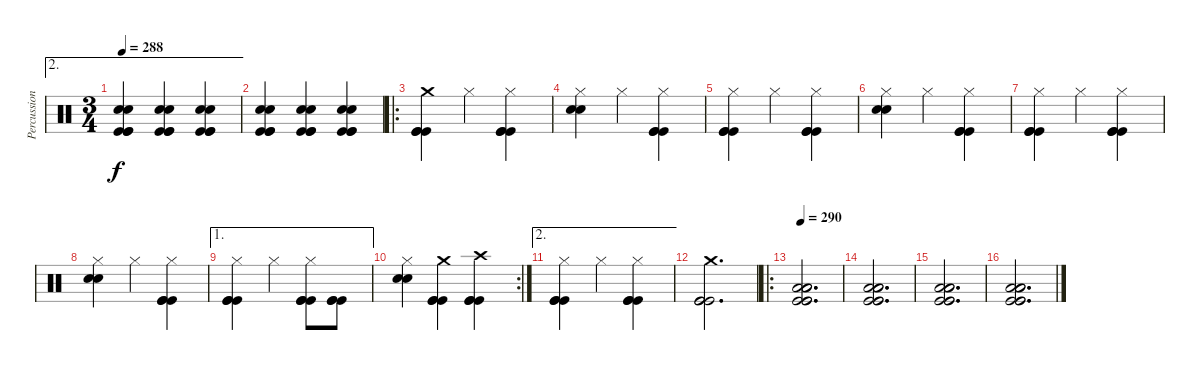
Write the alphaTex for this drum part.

\track ("Percussion" "Percussion") {instrument percussion}
\staff {score}
\articulation defaults
\ae 2
\ts (3 4)
\tempo 288
\clef neutral
\ks c
("Electric Snare (hit)" "Snare (hit) 2" "Kick (hit)" "Kick (hit)" "Kick (hit)").4{dy f} ("Electric Snare (hit)" "Snare (hit) 2" "Kick (hit)" "Kick (hit)" "Kick (hit)").4 ("Electric Snare (hit)" "Snare (hit) 2" "Kick (hit)" "Kick (hit)" "Kick (hit)").4 |
("Electric Snare (hit)" "Snare (hit) 2" "Kick (hit)" "Kick (hit)" "Kick (hit)").4 ("Electric Snare (hit)" "Snare (hit) 2" "Kick (hit)" "Kick (hit)" "Kick (hit)").4 ("Electric Snare (hit)" "Snare (hit) 2" "Kick (hit)" "Kick (hit)" "Kick (hit)").4 |
\ro
("Crash medium (hit)" "Kick (hit)" "Kick (hit)" "Kick (hit)").4 "Hi-Hat (closed)".4 ("Hi-Hat (closed)" "Kick (hit)" "Kick (hit)" "Kick (hit)").4 |
("Hi-Hat (closed)" "Electric Snare (hit)" "Snare (hit) 2").4 "Hi-Hat (closed)".4 ("Hi-Hat (closed)" "Kick (hit)" "Kick (hit)" "Kick (hit)").4 |
("Hi-Hat (closed)" "Kick (hit)" "Kick (hit)" "Kick (hit)").4 "Hi-Hat (closed)".4 ("Hi-Hat (closed)" "Kick (hit)" "Kick (hit)" "Kick (hit)").4 |
("Hi-Hat (closed)" "Electric Snare (hit)" "Snare (hit) 2").4 "Hi-Hat (closed)".4 ("Hi-Hat (closed)" "Kick (hit)" "Kick (hit)" "Kick (hit)").4 |
("Hi-Hat (closed)" "Kick (hit)" "Kick (hit)" "Kick (hit)").4 "Hi-Hat (closed)".4 ("Hi-Hat (closed)" "Kick (hit)" "Kick (hit)" "Kick (hit)").4 |
("Hi-Hat (closed)" "Electric Snare (hit)" "Snare (hit) 2").4 "Hi-Hat (closed)".4 ("Hi-Hat (closed)" "Kick (hit)" "Kick (hit)" "Kick (hit)").4 |
\ae 1
("Hi-Hat (closed)" "Kick (hit)" "Kick (hit)" "Kick (hit)").4 "Hi-Hat (closed)".4 ("Hi-Hat (closed)" "Kick (hit)" "Kick (hit)" "Kick (hit)").8 ("Kick (hit)" "Kick (hit)" "Kick (hit)").8 |
\rc 2
("Hi-Hat (closed)" "Snare (hit) 2" "Electric Snare (hit)").4 ("Crash medium (hit)" "Kick (hit)" "Kick (hit)" "Kick (hit)").4 ("Crash high (hit)" "Kick (hit)" "Kick (hit)" "Kick (hit)").4 |
\ae 2
("Hi-Hat (closed)" "Kick (hit)" "Kick (hit)" "Kick (hit)").4 "Hi-Hat (closed)".4 ("Hi-Hat (closed)" "Kick (hit)" "Kick (hit)" "Kick (hit)").4 |
("Crash medium (hit)" "Kick (hit)" "Kick (hit)" "Kick (hit)").2{d} |
\ro
\tempo 290
("Low Floor Tom (hit)" "Low Floor Tom (hit)" "Low Floor Tom (hit)" "Kick (hit)" "Kick (hit)" "Kick (hit)").2{d} |
("Low Floor Tom (hit)" "Low Floor Tom (hit)" "Low Floor Tom (hit)" "Kick (hit)" "Kick (hit)" "Kick (hit)").2{d} |
("Low Floor Tom (hit)" "Low Floor Tom (hit)" "Low Floor Tom (hit)" "Kick (hit)" "Kick (hit)" "Kick (hit)").2{d} |
("Low Floor Tom (hit)" "Low Floor Tom (hit)" "Low Floor Tom (hit)" "Kick (hit)" "Kick (hit)" "Kick (hit)").2{d}
